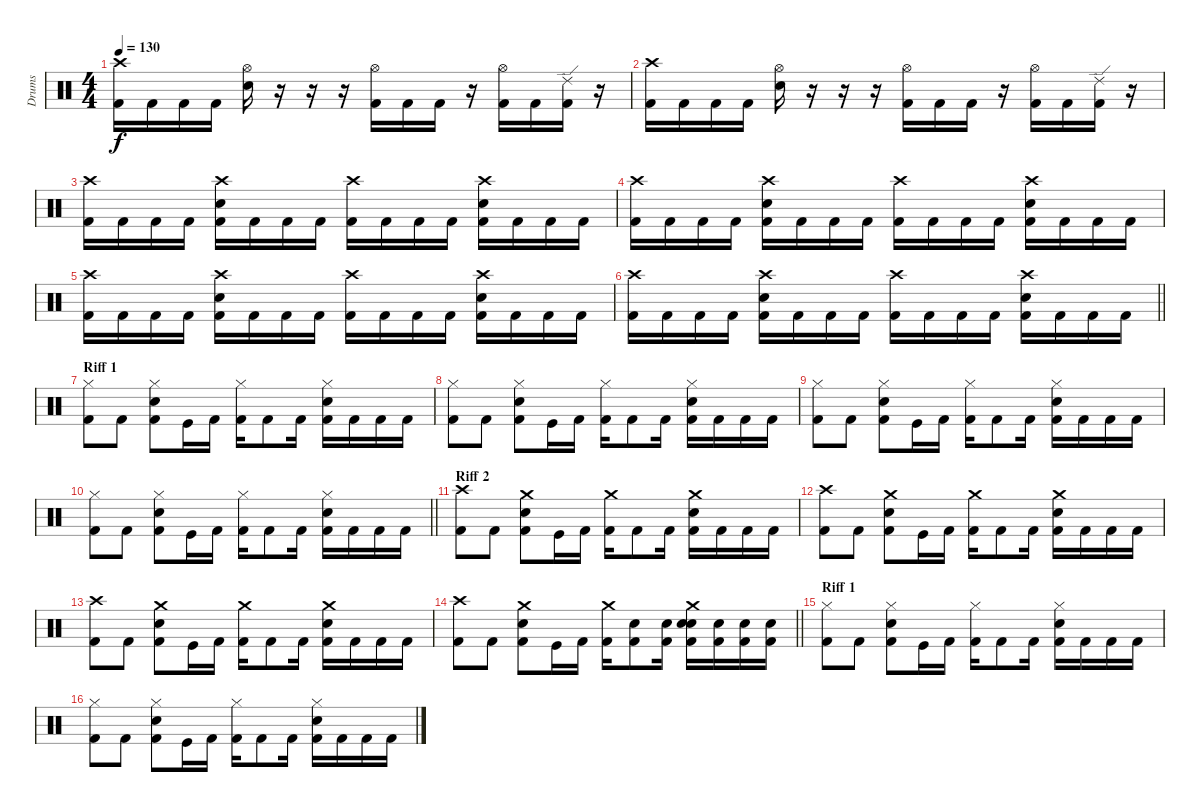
\track ("Drums" "Drums") {instrument percussion}
\staff {score}
\articulation defaults
\ts (4 4)
\tempo 130
\clef neutral
\ks c
("Crash high (hit)" "Kick (hit) 2").16{dy f} "Kick (hit) 2".16 "Kick (hit) 2".16 "Kick (hit) 2".16 ("Hi-Hat (open)" "Electric Snare (hit)").16 r.16 r.16 r.16 ("Hi-Hat (open)" "Kick (hit) 2").16 "Kick (hit) 2".16 "Kick (hit) 2".16 r.16 ("Hi-Hat (open)" "Kick (hit) 2").16 "Kick (hit) 2".16 ("Ride (edge) 2" "Kick (hit) 2").16 r.16 |
("Crash high (hit)" "Kick (hit) 2").16 "Kick (hit) 2".16 "Kick (hit) 2".16 "Kick (hit) 2".16 ("Hi-Hat (open)" "Electric Snare (hit)").16 r.16 r.16 r.16 ("Hi-Hat (open)" "Kick (hit) 2").16 "Kick (hit) 2".16 "Kick (hit) 2".16 r.16 ("Hi-Hat (open)" "Kick (hit) 2").16 "Kick (hit) 2".16 ("Ride (edge) 2" "Kick (hit) 2").16 r.16 |
("Crash high (hit)" "Kick (hit) 2").16 "Kick (hit) 2".16 "Kick (hit) 2".16 "Kick (hit) 2".16 ("Crash high (hit)" "Electric Snare (hit)" "Kick (hit) 2").16 "Kick (hit) 2".16 "Kick (hit) 2".16 "Kick (hit) 2".16 ("Crash high (hit)" "Kick (hit) 2").16 "Kick (hit) 2".16 "Kick (hit) 2".16 "Kick (hit) 2".16 ("Crash high (hit)" "Electric Snare (hit)" "Kick (hit) 2").16 "Kick (hit) 2".16 "Kick (hit) 2".16 "Kick (hit) 2".16 |
("Crash high (hit)" "Kick (hit) 2").16 "Kick (hit) 2".16 "Kick (hit) 2".16 "Kick (hit) 2".16 ("Crash high (hit)" "Electric Snare (hit)" "Kick (hit) 2").16 "Kick (hit) 2".16 "Kick (hit) 2".16 "Kick (hit) 2".16 ("Crash high (hit)" "Kick (hit) 2").16 "Kick (hit) 2".16 "Kick (hit) 2".16 "Kick (hit) 2".16 ("Crash high (hit)" "Electric Snare (hit)" "Kick (hit) 2").16 "Kick (hit) 2".16 "Kick (hit) 2".16 "Kick (hit) 2".16 |
("Crash high (hit)" "Kick (hit) 2").16 "Kick (hit) 2".16 "Kick (hit) 2".16 "Kick (hit) 2".16 ("Crash high (hit)" "Electric Snare (hit)" "Kick (hit) 2").16 "Kick (hit) 2".16 "Kick (hit) 2".16 "Kick (hit) 2".16 ("Crash high (hit)" "Kick (hit) 2").16 "Kick (hit) 2".16 "Kick (hit) 2".16 "Kick (hit) 2".16 ("Crash high (hit)" "Electric Snare (hit)" "Kick (hit) 2").16 "Kick (hit) 2".16 "Kick (hit) 2".16 "Kick (hit) 2".16 |
\barLineRight lightlight
("Crash high (hit)" "Kick (hit) 2").16 "Kick (hit) 2".16 "Kick (hit) 2".16 "Kick (hit) 2".16 ("Crash high (hit)" "Electric Snare (hit)" "Kick (hit) 2").16 "Kick (hit) 2".16 "Kick (hit) 2".16 "Kick (hit) 2".16 ("Crash high (hit)" "Kick (hit) 2").16 "Kick (hit) 2".16 "Kick (hit) 2".16 "Kick (hit) 2".16 ("Crash high (hit)" "Electric Snare (hit)" "Kick (hit) 2").16 "Kick (hit) 2".16 "Kick (hit) 2".16 "Kick (hit) 2".16 |
\section ("" "Riff 1")
("Hi-Hat (closed)" "Kick (hit) 2").8 "Kick (hit) 2".8 ("Hi-Hat (closed)" "Electric Snare (hit)" "Kick (hit) 2").8 "Kick (hit)".16 "Kick (hit) 2".16 ("Hi-Hat (closed)" "Kick (hit) 2").16 "Kick (hit) 2".8 "Kick (hit) 2".16 ("Hi-Hat (closed)" "Electric Snare (hit)" "Kick (hit) 2").16 "Kick (hit) 2".16 "Kick (hit) 2".16 "Kick (hit) 2".16 |
("Hi-Hat (closed)" "Kick (hit) 2").8 "Kick (hit) 2".8 ("Hi-Hat (closed)" "Electric Snare (hit)" "Kick (hit) 2").8 "Kick (hit)".16 "Kick (hit) 2".16 ("Hi-Hat (closed)" "Kick (hit) 2").16 "Kick (hit) 2".8 "Kick (hit) 2".16 ("Hi-Hat (closed)" "Electric Snare (hit)" "Kick (hit) 2").16 "Kick (hit) 2".16 "Kick (hit) 2".16 "Kick (hit) 2".16 |
("Hi-Hat (closed)" "Kick (hit) 2").8 "Kick (hit) 2".8 ("Hi-Hat (closed)" "Electric Snare (hit)" "Kick (hit) 2").8 "Kick (hit)".16 "Kick (hit) 2".16 ("Hi-Hat (closed)" "Kick (hit) 2").16 "Kick (hit) 2".8 "Kick (hit) 2".16 ("Hi-Hat (closed)" "Electric Snare (hit)" "Kick (hit) 2").16 "Kick (hit) 2".16 "Kick (hit) 2".16 "Kick (hit) 2".16 |
\barLineRight lightlight
("Hi-Hat (closed)" "Kick (hit) 2").8 "Kick (hit) 2".8 ("Hi-Hat (closed)" "Electric Snare (hit)" "Kick (hit) 2").8 "Kick (hit)".16 "Kick (hit) 2".16 ("Hi-Hat (closed)" "Kick (hit) 2").16 "Kick (hit) 2".8 "Kick (hit) 2".16 ("Hi-Hat (closed)" "Electric Snare (hit)" "Kick (hit) 2").16 "Kick (hit) 2".16 "Kick (hit) 2".16 "Kick (hit) 2".16 |
\section ("" "Riff 2")
("Crash high (hit)" "Kick (hit) 2").8 "Kick (hit) 2".8 ("Crash medium (hit)" "Electric Snare (hit)" "Kick (hit) 2").8 "Kick (hit)".16 "Kick (hit) 2".16 ("Crash medium (hit)" "Kick (hit) 2").16 "Kick (hit) 2".8 "Kick (hit) 2".16 ("Crash medium (hit)" "Electric Snare (hit)" "Kick (hit) 2").16 "Kick (hit) 2".16 "Kick (hit) 2".16 "Kick (hit) 2".16 |
("Crash high (hit)" "Kick (hit) 2").8 "Kick (hit) 2".8 ("Crash medium (hit)" "Electric Snare (hit)" "Kick (hit) 2").8 "Kick (hit)".16 "Kick (hit) 2".16 ("Crash medium (hit)" "Kick (hit) 2").16 "Kick (hit) 2".8 "Kick (hit) 2".16 ("Crash medium (hit)" "Electric Snare (hit)" "Kick (hit) 2").16 "Kick (hit) 2".16 "Kick (hit) 2".16 "Kick (hit) 2".16 |
("Crash high (hit)" "Kick (hit) 2").8 "Kick (hit) 2".8 ("Crash medium (hit)" "Electric Snare (hit)" "Kick (hit) 2").8 "Kick (hit)".16 "Kick (hit) 2".16 ("Crash medium (hit)" "Kick (hit) 2").16 "Kick (hit) 2".8 "Kick (hit) 2".16 ("Crash medium (hit)" "Electric Snare (hit)" "Kick (hit) 2").16 "Kick (hit) 2".16 "Kick (hit) 2".16 "Kick (hit) 2".16 |
\barLineRight lightlight
("Crash high (hit)" "Kick (hit) 2").8 "Kick (hit) 2".8 ("Crash medium (hit)" "Electric Snare (hit)" "Kick (hit) 2").8 "Kick (hit)".16 "Kick (hit) 2".16 ("Crash medium (hit)" "Kick (hit) 2").16 ("Electric Snare (hit)" "Kick (hit) 2").8 ("Electric Snare (hit)" "Kick (hit) 2").16 ("Crash medium (hit)" "Electric Snare (hit)" "Electric Snare (hit)" "Kick (hit) 2").16 ("Electric Snare (hit)" "Kick (hit) 2").16 ("Electric Snare (hit)" "Kick (hit) 2").16 ("Electric Snare (hit)" "Kick (hit) 2").16 |
\section ("" "Riff 1")
("Hi-Hat (closed)" "Kick (hit) 2").8 "Kick (hit) 2".8 ("Hi-Hat (closed)" "Electric Snare (hit)" "Kick (hit) 2").8 "Kick (hit)".16 "Kick (hit) 2".16 ("Hi-Hat (closed)" "Kick (hit) 2").16 "Kick (hit) 2".8 "Kick (hit) 2".16 ("Hi-Hat (closed)" "Electric Snare (hit)" "Kick (hit) 2").16 "Kick (hit) 2".16 "Kick (hit) 2".16 "Kick (hit) 2".16 |
("Hi-Hat (closed)" "Kick (hit) 2").8 "Kick (hit) 2".8 ("Hi-Hat (closed)" "Electric Snare (hit)" "Kick (hit) 2").8 "Kick (hit)".16 "Kick (hit) 2".16 ("Hi-Hat (closed)" "Kick (hit) 2").16 "Kick (hit) 2".8 "Kick (hit) 2".16 ("Hi-Hat (closed)" "Electric Snare (hit)" "Kick (hit) 2").16 "Kick (hit) 2".16 "Kick (hit) 2".16 "Kick (hit) 2".16
